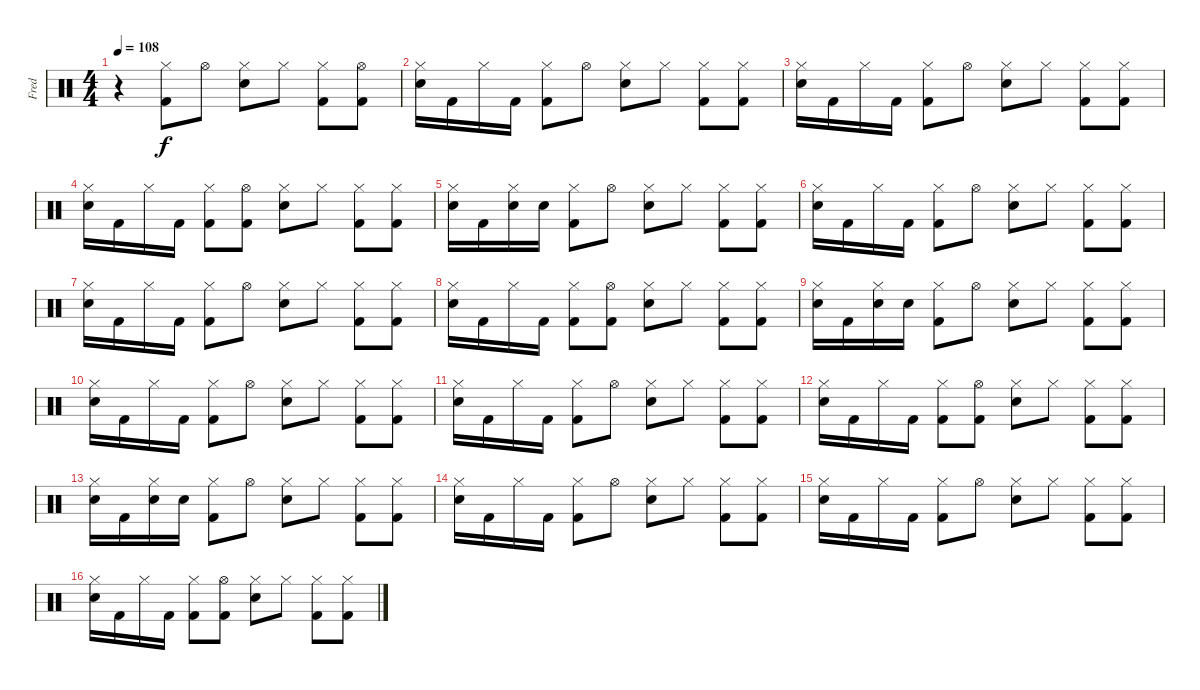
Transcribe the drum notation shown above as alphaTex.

\track ("Fred" "Fred") {instrument percussion}
\staff {score}
\articulation defaults
\ts (4 4)
\tempo 108
\clef neutral
\ks c
r.4{dy f} ("Hi-Hat (closed)" "Kick (hit) 2").8 "Hi-Hat (open)".8 ("Hi-Hat (closed)" "Snare (hit) 2").8 "Hi-Hat (closed)".8 ("Hi-Hat (closed)" "Kick (hit) 2").8 ("Hi-Hat (open)" "Kick (hit) 2").8 |
("Hi-Hat (closed)" "Snare (hit) 2").16 "Kick (hit) 2".16 "Hi-Hat (closed)".16 "Kick (hit) 2".16 ("Hi-Hat (closed)" "Kick (hit) 2").8 "Hi-Hat (open)".8 ("Hi-Hat (closed)" "Snare (hit) 2").8 "Hi-Hat (closed)".8 ("Hi-Hat (closed)" "Kick (hit) 2").8 ("Hi-Hat (closed)" "Kick (hit) 2").8 |
("Hi-Hat (closed)" "Snare (hit) 2").16 "Kick (hit) 2".16 "Hi-Hat (closed)".16 "Kick (hit) 2".16 ("Hi-Hat (closed)" "Kick (hit) 2").8 "Hi-Hat (open)".8 ("Hi-Hat (closed)" "Snare (hit) 2").8 "Hi-Hat (closed)".8 ("Hi-Hat (closed)" "Kick (hit) 2").8 ("Hi-Hat (closed)" "Kick (hit) 2").8 |
("Hi-Hat (closed)" "Snare (hit) 2").16 "Kick (hit) 2".16 "Hi-Hat (closed)".16 "Kick (hit) 2".16 ("Hi-Hat (closed)" "Kick (hit) 2").8 ("Hi-Hat (open)" "Kick (hit) 2").8 ("Hi-Hat (closed)" "Snare (hit) 2").8 "Hi-Hat (closed)".8 ("Hi-Hat (closed)" "Kick (hit) 2").8 ("Hi-Hat (closed)" "Kick (hit) 2").8 |
("Hi-Hat (closed)" "Snare (hit) 2").16 "Kick (hit) 2".16 ("Hi-Hat (closed)" "Snare (hit) 2").16 "Snare (hit) 2".16 ("Hi-Hat (closed)" "Kick (hit) 2").8 "Hi-Hat (open)".8 ("Hi-Hat (closed)" "Snare (hit) 2").8 "Hi-Hat (closed)".8 ("Hi-Hat (closed)" "Kick (hit) 2").8 ("Hi-Hat (closed)" "Kick (hit) 2").8 |
("Hi-Hat (closed)" "Snare (hit) 2").16 "Kick (hit) 2".16 "Hi-Hat (closed)".16 "Kick (hit) 2".16 ("Hi-Hat (closed)" "Kick (hit) 2").8 "Hi-Hat (open)".8 ("Hi-Hat (closed)" "Snare (hit) 2").8 "Hi-Hat (closed)".8 ("Hi-Hat (closed)" "Kick (hit) 2").8 ("Hi-Hat (closed)" "Kick (hit) 2").8 |
("Hi-Hat (closed)" "Snare (hit) 2").16 "Kick (hit) 2".16 "Hi-Hat (closed)".16 "Kick (hit) 2".16 ("Hi-Hat (closed)" "Kick (hit) 2").8 "Hi-Hat (open)".8 ("Hi-Hat (closed)" "Snare (hit) 2").8 "Hi-Hat (closed)".8 ("Hi-Hat (closed)" "Kick (hit) 2").8 ("Hi-Hat (closed)" "Kick (hit) 2").8 |
("Hi-Hat (closed)" "Snare (hit) 2").16 "Kick (hit) 2".16 "Hi-Hat (closed)".16 "Kick (hit) 2".16 ("Hi-Hat (closed)" "Kick (hit) 2").8 ("Hi-Hat (open)" "Kick (hit) 2").8 ("Hi-Hat (closed)" "Snare (hit) 2").8 "Hi-Hat (closed)".8 ("Hi-Hat (closed)" "Kick (hit) 2").8 ("Hi-Hat (closed)" "Kick (hit) 2").8 |
("Hi-Hat (closed)" "Snare (hit) 2").16 "Kick (hit) 2".16 ("Hi-Hat (closed)" "Snare (hit) 2").16 "Snare (hit) 2".16 ("Hi-Hat (closed)" "Kick (hit) 2").8 "Hi-Hat (open)".8 ("Hi-Hat (closed)" "Snare (hit) 2").8 "Hi-Hat (closed)".8 ("Hi-Hat (closed)" "Kick (hit) 2").8 ("Hi-Hat (closed)" "Kick (hit) 2").8 |
("Hi-Hat (closed)" "Snare (hit) 2").16 "Kick (hit) 2".16 "Hi-Hat (closed)".16 "Kick (hit) 2".16 ("Hi-Hat (closed)" "Kick (hit) 2").8 "Hi-Hat (open)".8 ("Hi-Hat (closed)" "Snare (hit) 2").8 "Hi-Hat (closed)".8 ("Hi-Hat (closed)" "Kick (hit) 2").8 ("Hi-Hat (closed)" "Kick (hit) 2").8 |
("Hi-Hat (closed)" "Snare (hit) 2").16 "Kick (hit) 2".16 "Hi-Hat (closed)".16 "Kick (hit) 2".16 ("Hi-Hat (closed)" "Kick (hit) 2").8 "Hi-Hat (open)".8 ("Hi-Hat (closed)" "Snare (hit) 2").8 "Hi-Hat (closed)".8 ("Hi-Hat (closed)" "Kick (hit) 2").8 ("Hi-Hat (closed)" "Kick (hit) 2").8 |
("Hi-Hat (closed)" "Snare (hit) 2").16 "Kick (hit) 2".16 "Hi-Hat (closed)".16 "Kick (hit) 2".16 ("Hi-Hat (closed)" "Kick (hit) 2").8 ("Hi-Hat (open)" "Kick (hit) 2").8 ("Hi-Hat (closed)" "Snare (hit) 2").8 "Hi-Hat (closed)".8 ("Hi-Hat (closed)" "Kick (hit) 2").8 ("Hi-Hat (closed)" "Kick (hit) 2").8 |
("Hi-Hat (closed)" "Snare (hit) 2").16 "Kick (hit) 2".16 ("Hi-Hat (closed)" "Snare (hit) 2").16 "Snare (hit) 2".16 ("Hi-Hat (closed)" "Kick (hit) 2").8 "Hi-Hat (open)".8 ("Hi-Hat (closed)" "Snare (hit) 2").8 "Hi-Hat (closed)".8 ("Hi-Hat (closed)" "Kick (hit) 2").8 ("Hi-Hat (closed)" "Kick (hit) 2").8 |
("Hi-Hat (closed)" "Snare (hit) 2").16 "Kick (hit) 2".16 "Hi-Hat (closed)".16 "Kick (hit) 2".16 ("Hi-Hat (closed)" "Kick (hit) 2").8 "Hi-Hat (open)".8 ("Hi-Hat (closed)" "Snare (hit) 2").8 "Hi-Hat (closed)".8 ("Hi-Hat (closed)" "Kick (hit) 2").8 ("Hi-Hat (closed)" "Kick (hit) 2").8 |
("Hi-Hat (closed)" "Snare (hit) 2").16 "Kick (hit) 2".16 "Hi-Hat (closed)".16 "Kick (hit) 2".16 ("Hi-Hat (closed)" "Kick (hit) 2").8 "Hi-Hat (open)".8 ("Hi-Hat (closed)" "Snare (hit) 2").8 "Hi-Hat (closed)".8 ("Hi-Hat (closed)" "Kick (hit) 2").8 ("Hi-Hat (closed)" "Kick (hit) 2").8 |
("Hi-Hat (closed)" "Snare (hit) 2").16 "Kick (hit) 2".16 "Hi-Hat (closed)".16 "Kick (hit) 2".16 ("Hi-Hat (closed)" "Kick (hit) 2").8 ("Hi-Hat (open)" "Kick (hit) 2").8 ("Hi-Hat (closed)" "Snare (hit) 2").8 "Hi-Hat (closed)".8 ("Hi-Hat (closed)" "Kick (hit) 2").8 ("Hi-Hat (closed)" "Kick (hit) 2").8
